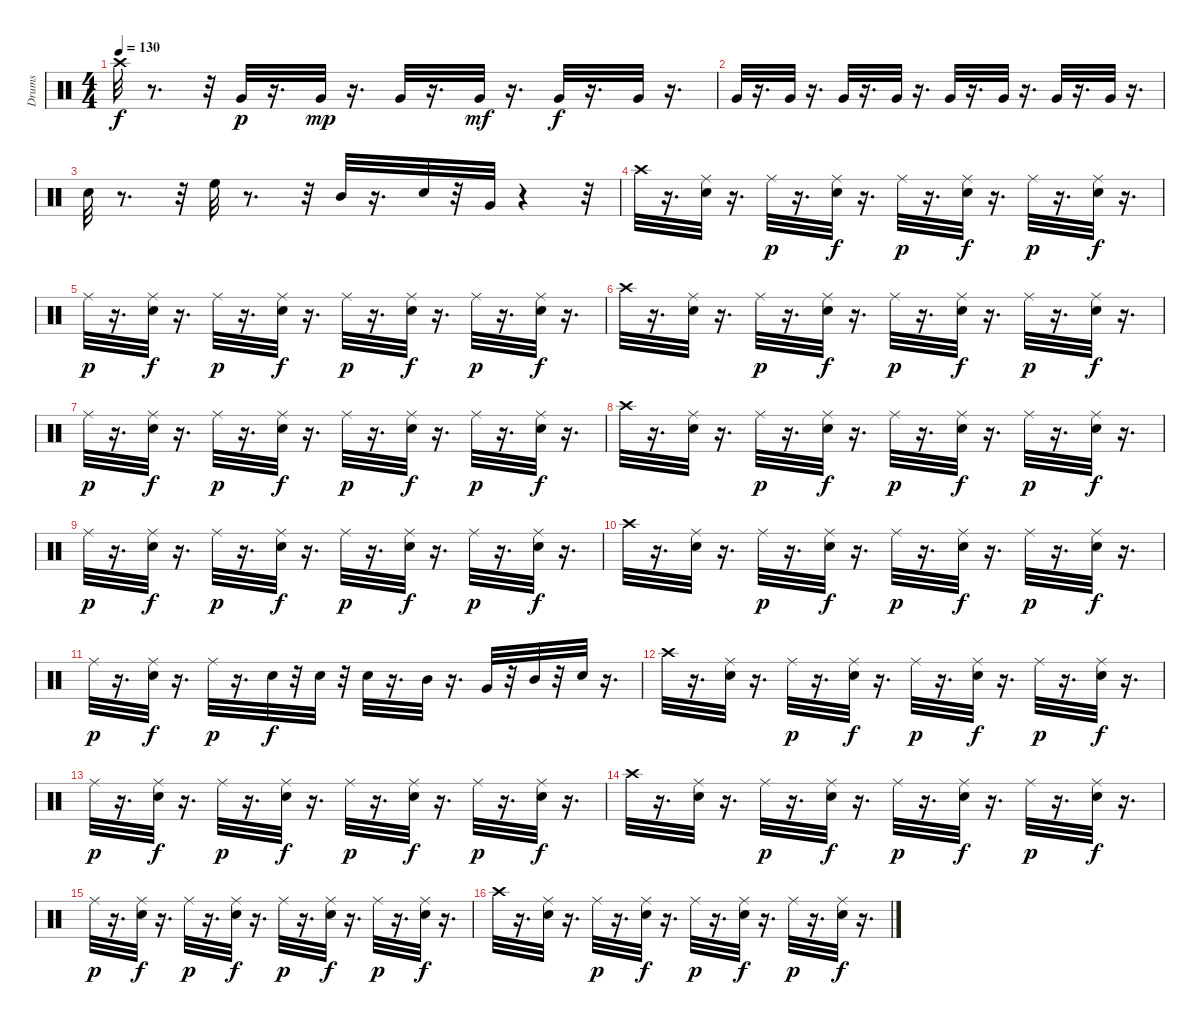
\track ("Drums" "Drums") {instrument percussion}
\staff {score}
\articulation defaults
\ts (4 4)
\tempo 130
\clef neutral
\ks c "Crash high (hit)".32{dy f}
r.8{d} r.32 "Very Low Tom (hit)".32{dy p} r.16{d} "Very Low Tom (hit)".32{dy mp} r.16{d} "Very Low Tom (hit)".32 r.16{d} "Very Low Tom (hit)".32{dy mf} r.16{d} "Very Low Tom (hit)".32{dy f} r.16{d} "Very Low Tom (hit)".32 r.16{d} |
"Very Low Tom (hit)".32 r.16{d} "Very Low Tom (hit)".32 r.16{d} "Very Low Tom (hit)".32 r.16{d} "Very Low Tom (hit)".32 r.16{d} "Very Low Tom (hit)".32 r.16{d} "Very Low Tom (hit)".32 r.16{d} "Very Low Tom (hit)".32 r.16{d} "Very Low Tom (hit)".32 r.16{d} |
"Snare (hit) 2".32 r.8{d} r.32 "High Floor Tom (hit)".32 r.8{d} r.32 "Mid Tom (hit)".32 r.16{d} "Snare (hit) 2".32 r.32 "Very Low Tom (hit)".32 r.4 r.32 |
"Crash high (hit)".32 r.16{d} ("Snare (hit) 2" "Ride (middle)").32 r.16{d} "Ride (middle)".32{dy p} r.16{d} ("Snare (hit) 2" "Ride (middle)").32{dy f} r.16{d} "Ride (middle)".32{dy p} r.16{d} ("Snare (hit) 2" "Ride (middle)").32{dy f} r.16{d} "Ride (middle)".32{dy p} r.16{d} ("Snare (hit) 2" "Ride (middle)").32{dy f} r.16{d} |
"Ride (middle)".32{dy p} r.16{d} ("Snare (hit) 2" "Ride (middle)").32{dy f} r.16{d} "Ride (middle)".32{dy p} r.16{d} ("Snare (hit) 2" "Ride (middle)").32{dy f} r.16{d} "Ride (middle)".32{dy p} r.16{d} ("Snare (hit) 2" "Ride (middle)").32{dy f} r.16{d} "Ride (middle)".32{dy p} r.16{d} ("Snare (hit) 2" "Ride (middle)").32{dy f} r.16{d} |
"Crash high (hit)".32 r.16{d} ("Snare (hit) 2" "Ride (middle)").32 r.16{d} "Ride (middle)".32{dy p} r.16{d} ("Snare (hit) 2" "Ride (middle)").32{dy f} r.16{d} "Ride (middle)".32{dy p} r.16{d} ("Snare (hit) 2" "Ride (middle)").32{dy f} r.16{d} "Ride (middle)".32{dy p} r.16{d} ("Snare (hit) 2" "Ride (middle)").32{dy f} r.16{d} |
"Ride (middle)".32{dy p} r.16{d} ("Snare (hit) 2" "Ride (middle)").32{dy f} r.16{d} "Ride (middle)".32{dy p} r.16{d} ("Snare (hit) 2" "Ride (middle)").32{dy f} r.16{d} "Ride (middle)".32{dy p} r.16{d} ("Snare (hit) 2" "Ride (middle)").32{dy f} r.16{d} "Ride (middle)".32{dy p} r.16{d} ("Snare (hit) 2" "Ride (middle)").32{dy f} r.16{d} |
"Crash high (hit)".32 r.16{d} ("Snare (hit) 2" "Ride (middle)").32 r.16{d} "Ride (middle)".32{dy p} r.16{d} ("Snare (hit) 2" "Ride (middle)").32{dy f} r.16{d} "Ride (middle)".32{dy p} r.16{d} ("Snare (hit) 2" "Ride (middle)").32{dy f} r.16{d} "Ride (middle)".32{dy p} r.16{d} ("Snare (hit) 2" "Ride (middle)").32{dy f} r.16{d} |
"Ride (middle)".32{dy p} r.16{d} ("Snare (hit) 2" "Ride (middle)").32{dy f} r.16{d} "Ride (middle)".32{dy p} r.16{d} ("Snare (hit) 2" "Ride (middle)").32{dy f} r.16{d} "Ride (middle)".32{dy p} r.16{d} ("Snare (hit) 2" "Ride (middle)").32{dy f} r.16{d} "Ride (middle)".32{dy p} r.16{d} ("Snare (hit) 2" "Ride (middle)").32{dy f} r.16{d} |
"Crash high (hit)".32 r.16{d} ("Snare (hit) 2" "Ride (middle)").32 r.16{d} "Ride (middle)".32{dy p} r.16{d} ("Snare (hit) 2" "Ride (middle)").32{dy f} r.16{d} "Ride (middle)".32{dy p} r.16{d} ("Snare (hit) 2" "Ride (middle)").32{dy f} r.16{d} "Ride (middle)".32{dy p} r.16{d} ("Snare (hit) 2" "Ride (middle)").32{dy f} r.16{d} |
"Ride (middle)".32{dy p} r.16{d} ("Snare (hit) 2" "Ride (middle)").32{dy f} r.16{d} "Ride (middle)".32{dy p} r.16{d} "Snare (hit) 2".32{dy f} r.32 "Snare (hit) 2".32 r.32 "Snare (hit) 2".32 r.16{d} "Mid Tom (hit)".32 r.16{d} "Very Low Tom (hit)".32 r.32 "Mid Tom (hit)".32 r.32 "Snare (hit)".32 r.16{d} |
"Crash high (hit)".32 r.16{d} ("Snare (hit) 2" "Ride (middle)").32 r.16{d} "Ride (middle)".32{dy p} r.16{d} ("Snare (hit) 2" "Ride (middle)").32{dy f} r.16{d} "Ride (middle)".32{dy p} r.16{d} ("Snare (hit) 2" "Ride (middle)").32{dy f} r.16{d} "Ride (middle)".32{dy p} r.16{d} ("Snare (hit) 2" "Ride (middle)").32{dy f} r.16{d} |
"Ride (middle)".32{dy p} r.16{d} ("Snare (hit) 2" "Ride (middle)").32{dy f} r.16{d} "Ride (middle)".32{dy p} r.16{d} ("Snare (hit) 2" "Ride (middle)").32{dy f} r.16{d} "Ride (middle)".32{dy p} r.16{d} ("Snare (hit) 2" "Ride (middle)").32{dy f} r.16{d} "Ride (middle)".32{dy p} r.16{d} ("Snare (hit) 2" "Ride (middle)").32{dy f} r.16{d} |
"Crash high (hit)".32 r.16{d} ("Snare (hit) 2" "Ride (middle)").32 r.16{d} "Ride (middle)".32{dy p} r.16{d} ("Snare (hit) 2" "Ride (middle)").32{dy f} r.16{d} "Ride (middle)".32{dy p} r.16{d} ("Snare (hit) 2" "Ride (middle)").32{dy f} r.16{d} "Ride (middle)".32{dy p} r.16{d} ("Snare (hit) 2" "Ride (middle)").32{dy f} r.16{d} |
"Ride (middle)".32{dy p} r.16{d} ("Snare (hit) 2" "Ride (middle)").32{dy f} r.16{d} "Ride (middle)".32{dy p} r.16{d} ("Snare (hit) 2" "Ride (middle)").32{dy f} r.16{d} "Ride (middle)".32{dy p} r.16{d} ("Snare (hit) 2" "Ride (middle)").32{dy f} r.16{d} "Ride (middle)".32{dy p} r.16{d} ("Snare (hit) 2" "Ride (middle)").32{dy f} r.16{d} |
"Crash high (hit)".32 r.16{d} ("Snare (hit) 2" "Ride (middle)").32 r.16{d} "Ride (middle)".32{dy p} r.16{d} ("Snare (hit) 2" "Ride (middle)").32{dy f} r.16{d} "Ride (middle)".32{dy p} r.16{d} ("Snare (hit) 2" "Ride (middle)").32{dy f} r.16{d} "Ride (middle)".32{dy p} r.16{d} ("Snare (hit) 2" "Ride (middle)").32{dy f} r.16{d}
